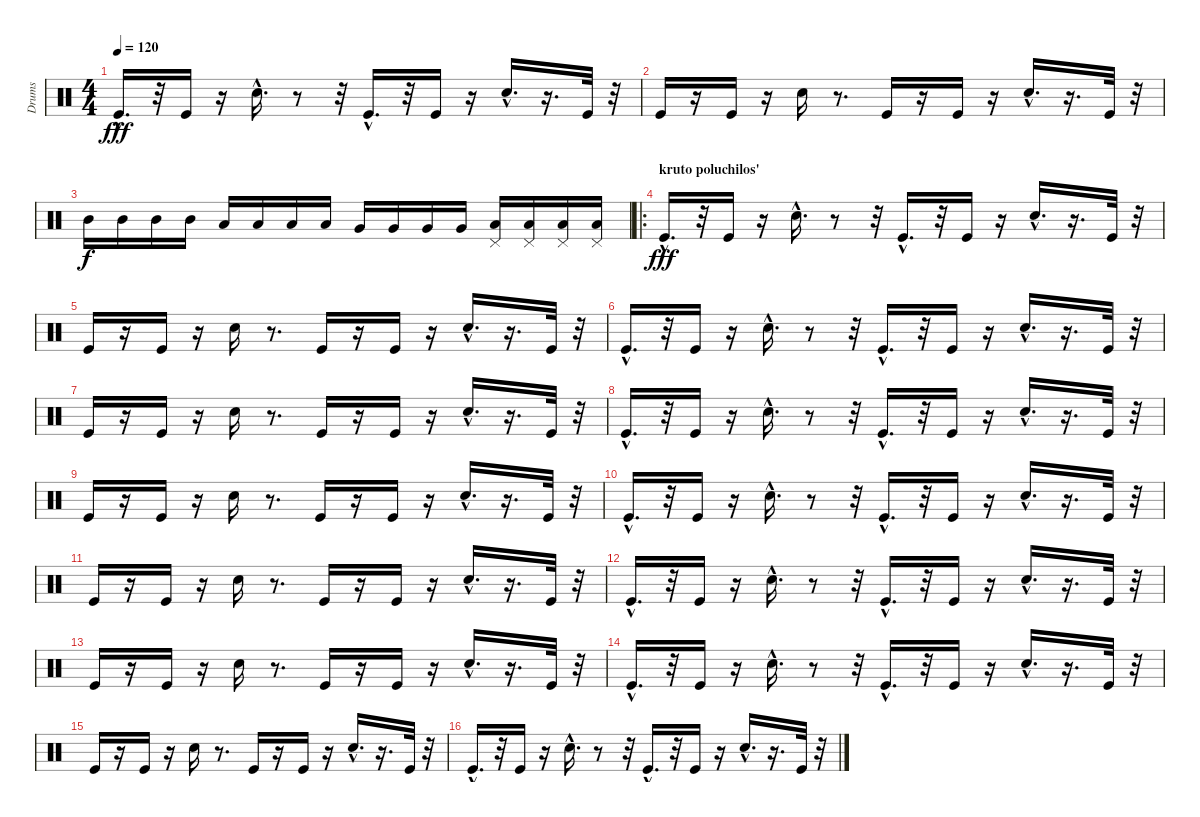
\track ("Drums" "Drums") {instrument percussion}
\staff {score}
\articulation defaults
\ts (4 4)
\tempo 120
\clef neutral
\ks c "Kick (hit)"{hac}.16{d dy fff}
r.32 "Kick (hit)".16 r.16 "Electric Snare (hit)"{hac}.16{d} r.8 r.32 "Kick (hit)"{hac}.16{d} r.32 "Kick (hit)".16 r.16 "Electric Snare (hit)"{hac}.16{d} r.16{d} "Kick (hit)".32 r.32 |
"Kick (hit)".16 r.16 "Kick (hit)".16 r.16 "Electric Snare (hit)".16 r.8{d} "Kick (hit)".16 r.16 "Kick (hit)".16 r.16 "Electric Snare (hit)"{hac}.16{d} r.16{d} "Kick (hit)".32 r.32 |
"Mid Tom (hit)".16{dy f} "Mid Tom (hit)".16 "Mid Tom (hit)".16 "Mid Tom (hit)".16 "Low Tom (hit)".16 "Low Tom (hit)".16 "Low Tom (hit)".16 "Low Tom (hit)".16 "Very Low Tom (hit)".16 "Very Low Tom (hit)".16 "Very Low Tom (hit)".16 "Very Low Tom (hit)".16 ("Low Floor Tom (hit)" "Pedal Hi-Hat (hit)").16 ("Low Floor Tom (hit)" "Pedal Hi-Hat (hit)").16 ("Low Floor Tom (hit)" "Pedal Hi-Hat (hit)").16 ("Low Floor Tom (hit)" "Pedal Hi-Hat (hit)").16 |
\ro
\section ("" "kruto poluchilos'")
"Kick (hit)"{hac}.16{d dy fff} r.32 "Kick (hit)".16 r.16 "Electric Snare (hit)"{hac}.16{d} r.8 r.32 "Kick (hit)"{hac}.16{d} r.32 "Kick (hit)".16 r.16 "Electric Snare (hit)"{hac}.16{d} r.16{d} "Kick (hit)".32 r.32 |
"Kick (hit)".16 r.16 "Kick (hit)".16 r.16 "Electric Snare (hit)".16 r.8{d} "Kick (hit)".16 r.16 "Kick (hit)".16 r.16 "Electric Snare (hit)"{hac}.16{d} r.16{d} "Kick (hit)".32 r.32 |
"Kick (hit)"{hac}.16{d} r.32 "Kick (hit)".16 r.16 "Electric Snare (hit)"{hac}.16{d} r.8 r.32 "Kick (hit)"{hac}.16{d} r.32 "Kick (hit)".16 r.16 "Electric Snare (hit)"{hac}.16{d} r.16{d} "Kick (hit)".32 r.32 |
"Kick (hit)".16 r.16 "Kick (hit)".16 r.16 "Electric Snare (hit)".16 r.8{d} "Kick (hit)".16 r.16 "Kick (hit)".16 r.16 "Electric Snare (hit)"{hac}.16{d} r.16{d} "Kick (hit)".32 r.32 |
"Kick (hit)"{hac}.16{d} r.32 "Kick (hit)".16 r.16 "Electric Snare (hit)"{hac}.16{d} r.8 r.32 "Kick (hit)"{hac}.16{d} r.32 "Kick (hit)".16 r.16 "Electric Snare (hit)"{hac}.16{d} r.16{d} "Kick (hit)".32 r.32 |
"Kick (hit)".16 r.16 "Kick (hit)".16 r.16 "Electric Snare (hit)".16 r.8{d} "Kick (hit)".16 r.16 "Kick (hit)".16 r.16 "Electric Snare (hit)"{hac}.16{d} r.16{d} "Kick (hit)".32 r.32 |
"Kick (hit)"{hac}.16{d} r.32 "Kick (hit)".16 r.16 "Electric Snare (hit)"{hac}.16{d} r.8 r.32 "Kick (hit)"{hac}.16{d} r.32 "Kick (hit)".16 r.16 "Electric Snare (hit)"{hac}.16{d} r.16{d} "Kick (hit)".32 r.32 |
"Kick (hit)".16 r.16 "Kick (hit)".16 r.16 "Electric Snare (hit)".16 r.8{d} "Kick (hit)".16 r.16 "Kick (hit)".16 r.16 "Electric Snare (hit)"{hac}.16{d} r.16{d} "Kick (hit)".32 r.32 |
"Kick (hit)"{hac}.16{d} r.32 "Kick (hit)".16 r.16 "Electric Snare (hit)"{hac}.16{d} r.8 r.32 "Kick (hit)"{hac}.16{d} r.32 "Kick (hit)".16 r.16 "Electric Snare (hit)"{hac}.16{d} r.16{d} "Kick (hit)".32 r.32 |
"Kick (hit)".16 r.16 "Kick (hit)".16 r.16 "Electric Snare (hit)".16 r.8{d} "Kick (hit)".16 r.16 "Kick (hit)".16 r.16 "Electric Snare (hit)"{hac}.16{d} r.16{d} "Kick (hit)".32 r.32 |
"Kick (hit)"{hac}.16{d} r.32 "Kick (hit)".16 r.16 "Electric Snare (hit)"{hac}.16{d} r.8 r.32 "Kick (hit)"{hac}.16{d} r.32 "Kick (hit)".16 r.16 "Electric Snare (hit)"{hac}.16{d} r.16{d} "Kick (hit)".32 r.32 |
"Kick (hit)".16 r.16 "Kick (hit)".16 r.16 "Electric Snare (hit)".16 r.8{d} "Kick (hit)".16 r.16 "Kick (hit)".16 r.16 "Electric Snare (hit)"{hac}.16{d} r.16{d} "Kick (hit)".32 r.32 |
"Kick (hit)"{hac}.16{d} r.32 "Kick (hit)".16 r.16 "Electric Snare (hit)"{hac}.16{d} r.8 r.32 "Kick (hit)"{hac}.16{d} r.32 "Kick (hit)".16 r.16 "Electric Snare (hit)"{hac}.16{d} r.16{d} "Kick (hit)".32 r.32
